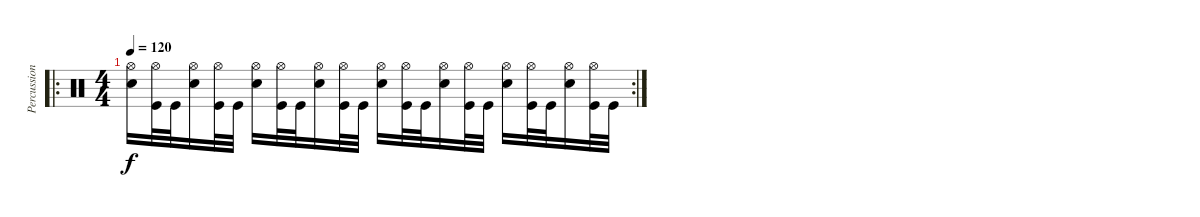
\track ("Percussion" "Percussion") {instrument percussion}
\staff {score}
\articulation defaults
\ro
\rc 2
\ts (4 4)
\tempo 120
\clef neutral
\ks c
("Hi-Hat (open)" "Snare (hit) 2").16{dy f} ("Hi-Hat (open)" "Kick (hit)").32 "Kick (hit)".32 ("Hi-Hat (open)" "Snare (hit) 2").16 ("Hi-Hat (open)" "Kick (hit)").32 "Kick (hit)".32 ("Hi-Hat (open)" "Snare (hit) 2").16 ("Hi-Hat (open)" "Kick (hit)").32 "Kick (hit)".32 ("Hi-Hat (open)" "Snare (hit) 2").16 ("Hi-Hat (open)" "Kick (hit)").32 "Kick (hit)".32 ("Hi-Hat (open)" "Snare (hit) 2").16 ("Hi-Hat (open)" "Kick (hit)").32 "Kick (hit)".32 ("Hi-Hat (open)" "Snare (hit) 2").16 ("Hi-Hat (open)" "Kick (hit)").32 "Kick (hit)".32 ("Hi-Hat (open)" "Snare (hit) 2").16 ("Hi-Hat (open)" "Kick (hit)").32 "Kick (hit)".32 ("Hi-Hat (open)" "Snare (hit) 2").16 ("Hi-Hat (open)" "Kick (hit)").32 "Kick (hit)".32
